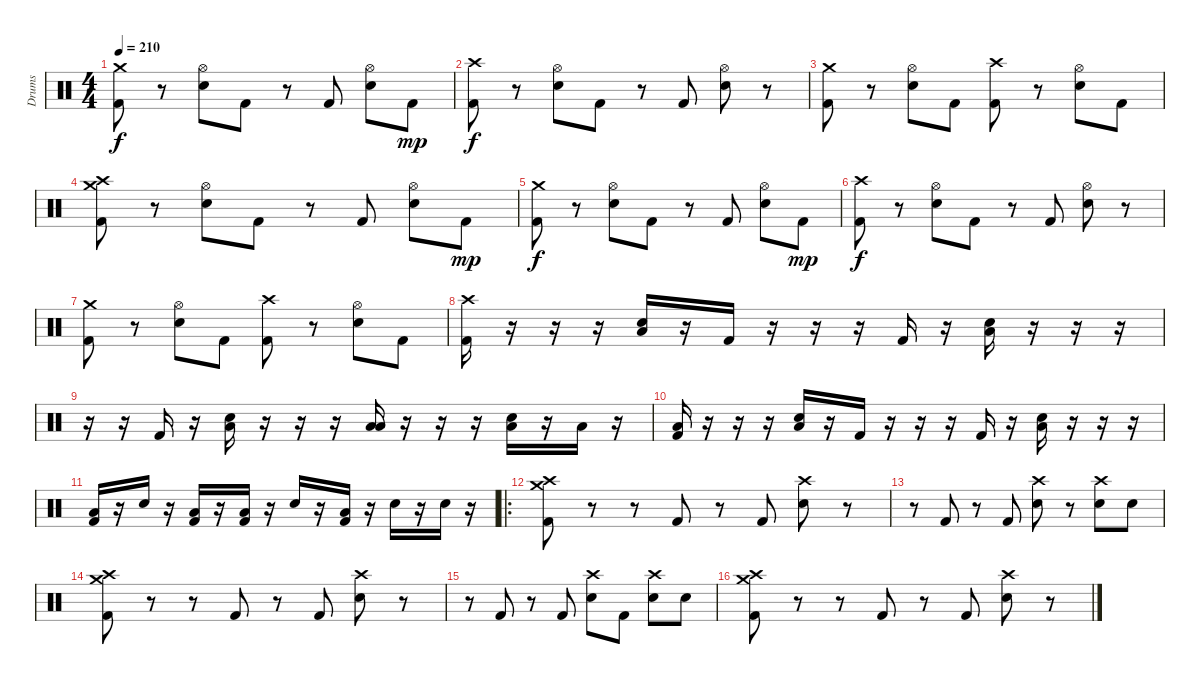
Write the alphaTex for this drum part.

\track ("Drums" "Drums") {instrument percussion}
\staff {score}
\articulation defaults
\ts (4 4)
\tempo 210
\clef neutral
\ks c
("Crash medium (hit)" "Kick (hit) 2").8{dy f} r.8 ("Hi-Hat (open)" "Electric Snare (hit)").8 "Kick (hit) 2".8 r.8 "Kick (hit) 2".8 ("Hi-Hat (open)" "Electric Snare (hit)").8 "Kick (hit) 2".8{dy mp} |
("Crash high (hit)" "Kick (hit) 2").8{dy f} r.8 ("Hi-Hat (open)" "Electric Snare (hit)").8 "Kick (hit) 2".8 r.8 "Kick (hit) 2".8 ("Hi-Hat (open)" "Electric Snare (hit)").8 r.8 |
("Crash medium (hit)" "Kick (hit) 2").8 r.8 ("Hi-Hat (open)" "Electric Snare (hit)").8 "Kick (hit) 2".8 ("Crash high (hit)" "Kick (hit) 2").8 r.8 ("Hi-Hat (open)" "Electric Snare (hit)").8 "Kick (hit) 2".8 |
("Crash high (hit)" "Crash medium (hit)" "Kick (hit) 2").8 r.8 ("Hi-Hat (open)" "Electric Snare (hit)").8 "Kick (hit) 2".8 r.8 "Kick (hit) 2".8 ("Hi-Hat (open)" "Electric Snare (hit)").8 "Kick (hit) 2".8{dy mp} |
("Crash medium (hit)" "Kick (hit) 2").8{dy f} r.8 ("Hi-Hat (open)" "Electric Snare (hit)").8 "Kick (hit) 2".8 r.8 "Kick (hit) 2".8 ("Hi-Hat (open)" "Electric Snare (hit)").8 "Kick (hit) 2".8{dy mp} |
("Crash high (hit)" "Kick (hit) 2").8{dy f} r.8 ("Hi-Hat (open)" "Electric Snare (hit)").8 "Kick (hit) 2".8 r.8 "Kick (hit) 2".8 ("Hi-Hat (open)" "Electric Snare (hit)").8 r.8 |
("Crash medium (hit)" "Kick (hit) 2").8 r.8 ("Hi-Hat (open)" "Electric Snare (hit)").8 "Kick (hit) 2".8 ("Crash high (hit)" "Kick (hit) 2").8 r.8 ("Hi-Hat (open)" "Electric Snare (hit)").8 "Kick (hit) 2".8 |
("Crash high (hit)" "Kick (hit) 2").16 r.16 r.16 r.16 ("Low Floor Tom (hit)" "Electric Snare (hit)").16 r.16 "Kick (hit) 2".16 r.16 r.16 r.16 "Kick (hit) 2".16 r.16 ("Low Floor Tom (hit)" "Electric Snare (hit)").16 r.16 r.16 r.16 |
r.16 r.16 "Kick (hit) 2".16 r.16 ("Low Floor Tom (hit)" "Electric Snare (hit)").16 r.16 r.16 r.16 ("Low Floor Tom (hit)" "Low Floor Tom (hit)").16 r.16 r.16 r.16 ("Low Floor Tom (hit)" "Electric Snare (hit)").16 r.16 "Low Floor Tom (hit)".16 r.16 |
("Low Floor Tom (hit)" "Kick (hit) 2").16 r.16 r.16 r.16 ("Low Floor Tom (hit)" "Electric Snare (hit)").16 r.16 "Kick (hit) 2".16 r.16 r.16 r.16 "Kick (hit) 2".16 r.16 ("Low Floor Tom (hit)" "Electric Snare (hit)").16 r.16 r.16 r.16 |
("Low Floor Tom (hit)" "Kick (hit) 2").16 r.16 "Electric Snare (hit)".16 r.16 ("Low Floor Tom (hit)" "Kick (hit) 2").16 r.16 ("Low Floor Tom (hit)" "Kick (hit) 2").16 r.16 "Electric Snare (hit)".16 r.16 ("Low Floor Tom (hit)" "Kick (hit) 2").16 r.16 "Electric Snare (hit)".16 r.16 "Electric Snare (hit)".16 r.16 |
\ro
("Crash high (hit)" "Crash medium (hit)" "Kick (hit) 2").8 r.8 r.8 "Kick (hit) 2".8 r.8 "Kick (hit) 2".8 ("Crash high (hit)" "Electric Snare (hit)").8 r.8 |
r.8 "Kick (hit) 2".8 r.8 "Kick (hit) 2".8 ("Crash high (hit)" "Electric Snare (hit)").8 r.8 ("Crash high (hit)" "Electric Snare (hit)").8 "Electric Snare (hit)".8 |
("Crash high (hit)" "Crash medium (hit)" "Kick (hit) 2").8 r.8 r.8 "Kick (hit) 2".8 r.8 "Kick (hit) 2".8 ("Crash high (hit)" "Electric Snare (hit)").8 r.8 |
r.8 "Kick (hit) 2".8 r.8 "Kick (hit) 2".8 ("Crash high (hit)" "Electric Snare (hit)").8 "Kick (hit) 2".8 ("Crash high (hit)" "Electric Snare (hit)").8 "Electric Snare (hit)".8 |
("Crash high (hit)" "Crash medium (hit)" "Kick (hit) 2").8 r.8 r.8 "Kick (hit) 2".8 r.8 "Kick (hit) 2".8 ("Crash high (hit)" "Electric Snare (hit)").8 r.8
